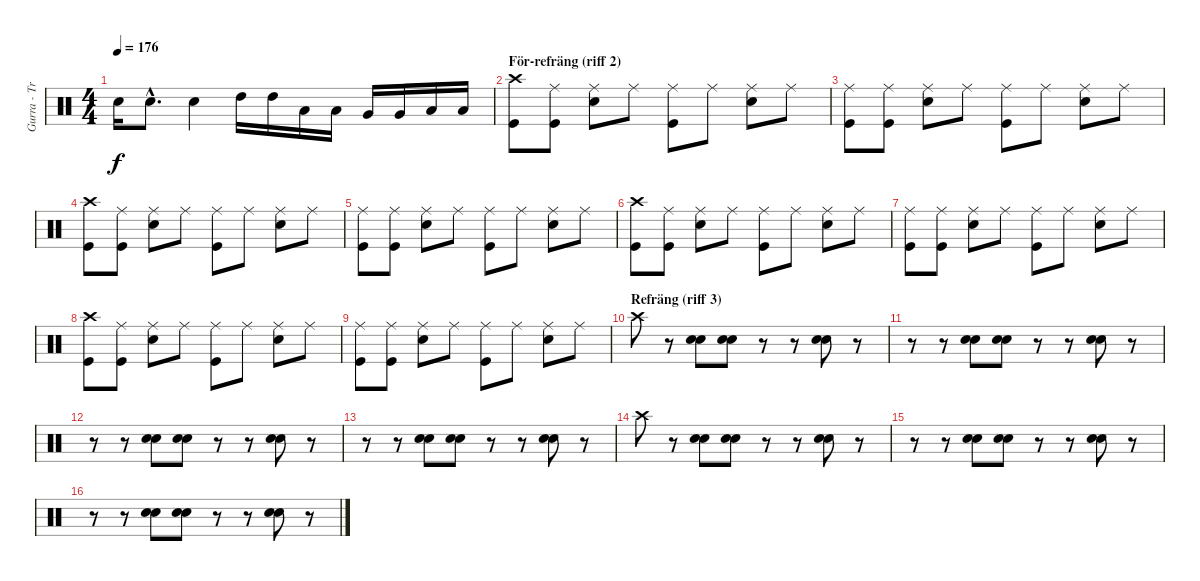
\track ("Gurra - Trummor" "Gurra - Tr") {instrument percussion}
\staff {score}
\articulation defaults
\ts (4 4)
\tempo 176
\clef neutral
\ks c "Electric Snare (hit)".16{dy f} "Electric Snare (hit)"{hac}.8{d} "Electric Snare (hit)".4 "High Tom (hit)".16 "High Tom (hit)".16 "Low Tom (hit)".16 "Low Tom (hit)".16 "Very Low Tom (hit)".16 "Very Low Tom (hit)".16 "Low Floor Tom (hit)".16 "Low Floor Tom (hit)".16
|
\section ("" "För-refräng (riff 2)")
("Crash high (hit)" "Kick (hit)").8 ("Ride (middle)" "Kick (hit)").8 ("Ride (middle)" "Electric Snare (hit)").8 "Ride (middle)".8 ("Ride (middle)" "Kick (hit)").8 "Ride (middle)".8 ("Ride (middle)" "Electric Snare (hit)").8 "Ride (middle)".8 |
("Ride (middle)" "Kick (hit)").8 ("Ride (middle)" "Kick (hit)").8 ("Ride (middle)" "Electric Snare (hit)").8 "Ride (middle)".8 ("Ride (middle)" "Kick (hit)").8 "Ride (middle)".8 ("Ride (middle)" "Electric Snare (hit)").8 "Ride (middle)".8 |
("Crash high (hit)" "Kick (hit)").8 ("Ride (middle)" "Kick (hit)").8 ("Ride (middle)" "Electric Snare (hit)").8 "Ride (middle)".8 ("Ride (middle)" "Kick (hit)").8 "Ride (middle)".8 ("Ride (middle)" "Electric Snare (hit)").8 "Ride (middle)".8 |
("Ride (middle)" "Kick (hit)").8 ("Ride (middle)" "Kick (hit)").8 ("Ride (middle)" "Electric Snare (hit)").8 "Ride (middle)".8 ("Ride (middle)" "Kick (hit)").8 "Ride (middle)".8 ("Ride (middle)" "Electric Snare (hit)").8 "Ride (middle)".8 |
("Crash high (hit)" "Kick (hit)").8 ("Ride (middle)" "Kick (hit)").8 ("Ride (middle)" "Electric Snare (hit)").8 "Ride (middle)".8 ("Ride (middle)" "Kick (hit)").8 "Ride (middle)".8 ("Ride (middle)" "Electric Snare (hit)").8 "Ride (middle)".8 |
("Ride (middle)" "Kick (hit)").8 ("Ride (middle)" "Kick (hit)").8 ("Ride (middle)" "Electric Snare (hit)").8 "Ride (middle)".8 ("Ride (middle)" "Kick (hit)").8 "Ride (middle)".8 ("Ride (middle)" "Electric Snare (hit)").8 "Ride (middle)".8 |
("Crash high (hit)" "Kick (hit)").8 ("Ride (middle)" "Kick (hit)").8 ("Ride (middle)" "Electric Snare (hit)").8 "Ride (middle)".8 ("Ride (middle)" "Kick (hit)").8 "Ride (middle)".8 ("Ride (middle)" "Electric Snare (hit)").8 "Ride (middle)".8 |
("Ride (middle)" "Kick (hit)").8 ("Ride (middle)" "Kick (hit)").8 ("Ride (middle)" "Electric Snare (hit)").8 "Ride (middle)".8 ("Ride (middle)" "Kick (hit)").8 "Ride (middle)".8 ("Ride (middle)" "Electric Snare (hit)").8 "Ride (middle)".8 |
\section ("" "Refräng (riff 3)")
"Crash high (hit)".8 r.8 ("Electric Snare (hit)" "Electric Snare (hit)").8 ("Electric Snare (hit)" "Electric Snare (hit)").8 r.8 r.8 ("Electric Snare (hit)" "Electric Snare (hit)").8 r.8 |
r.8 r.8 ("Electric Snare (hit)" "Electric Snare (hit)").8 ("Electric Snare (hit)" "Electric Snare (hit)").8 r.8 r.8 ("Electric Snare (hit)" "Electric Snare (hit)").8 r.8 |
r.8 r.8 ("Electric Snare (hit)" "Electric Snare (hit)").8 ("Electric Snare (hit)" "Electric Snare (hit)").8 r.8 r.8 ("Electric Snare (hit)" "Electric Snare (hit)").8 r.8 |
r.8 r.8 ("Electric Snare (hit)" "Electric Snare (hit)").8 ("Electric Snare (hit)" "Electric Snare (hit)").8 r.8 r.8 ("Electric Snare (hit)" "Electric Snare (hit)").8 r.8 |
"Crash high (hit)".8 r.8 ("Electric Snare (hit)" "Electric Snare (hit)").8 ("Electric Snare (hit)" "Electric Snare (hit)").8 r.8 r.8 ("Electric Snare (hit)" "Electric Snare (hit)").8 r.8 |
r.8 r.8 ("Electric Snare (hit)" "Electric Snare (hit)").8 ("Electric Snare (hit)" "Electric Snare (hit)").8 r.8 r.8 ("Electric Snare (hit)" "Electric Snare (hit)").8 r.8 |
r.8 r.8 ("Electric Snare (hit)" "Electric Snare (hit)").8 ("Electric Snare (hit)" "Electric Snare (hit)").8 r.8 r.8 ("Electric Snare (hit)" "Electric Snare (hit)").8 r.8
